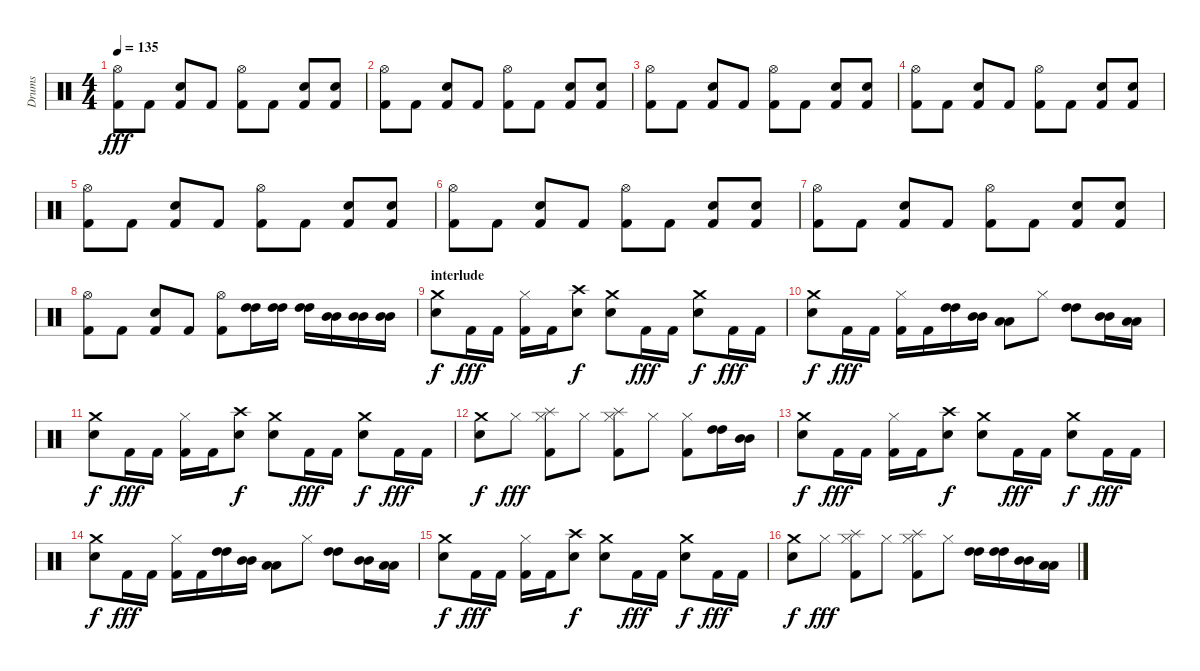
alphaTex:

\track ("Drums" "Drums") {instrument percussion}
\staff {score}
\articulation defaults
\ts (4 4)
\tempo 135
\clef neutral
\ks c
("Hi-Hat (open)" "Kick (hit) 2").8{dy fff} "Kick (hit) 2".8 ("Electric Snare (hit)" "Kick (hit) 2").8 "Kick (hit) 2".8 ("Hi-Hat (open)" "Kick (hit) 2").8 "Kick (hit) 2".8 ("Electric Snare (hit)" "Kick (hit) 2").8 ("Electric Snare (hit)" "Kick (hit) 2").8 |
("Hi-Hat (open)" "Kick (hit) 2").8 "Kick (hit) 2".8 ("Electric Snare (hit)" "Kick (hit) 2").8 "Kick (hit) 2".8 ("Hi-Hat (open)" "Kick (hit) 2").8 "Kick (hit) 2".8 ("Electric Snare (hit)" "Kick (hit) 2").8 ("Electric Snare (hit)" "Kick (hit) 2").8 |
("Hi-Hat (open)" "Kick (hit) 2").8 "Kick (hit) 2".8 ("Electric Snare (hit)" "Kick (hit) 2").8 "Kick (hit) 2".8 ("Hi-Hat (open)" "Kick (hit) 2").8 "Kick (hit) 2".8 ("Electric Snare (hit)" "Kick (hit) 2").8 ("Electric Snare (hit)" "Kick (hit) 2").8 |
("Hi-Hat (open)" "Kick (hit) 2").8 "Kick (hit) 2".8 ("Electric Snare (hit)" "Kick (hit) 2").8 "Kick (hit) 2".8 ("Hi-Hat (open)" "Kick (hit) 2").8 "Kick (hit) 2".8 ("Electric Snare (hit)" "Kick (hit) 2").8 ("Electric Snare (hit)" "Kick (hit) 2").8 |
("Hi-Hat (open)" "Kick (hit) 2").8 "Kick (hit) 2".8 ("Electric Snare (hit)" "Kick (hit) 2").8 "Kick (hit) 2".8 ("Hi-Hat (open)" "Kick (hit) 2").8 "Kick (hit) 2".8 ("Electric Snare (hit)" "Kick (hit) 2").8 ("Electric Snare (hit)" "Kick (hit) 2").8 |
("Hi-Hat (open)" "Kick (hit) 2").8 "Kick (hit) 2".8 ("Electric Snare (hit)" "Kick (hit) 2").8 "Kick (hit) 2".8 ("Hi-Hat (open)" "Kick (hit) 2").8 "Kick (hit) 2".8 ("Electric Snare (hit)" "Kick (hit) 2").8 ("Electric Snare (hit)" "Kick (hit) 2").8 |
("Hi-Hat (open)" "Kick (hit) 2").8 "Kick (hit) 2".8 ("Electric Snare (hit)" "Kick (hit) 2").8 "Kick (hit) 2".8 ("Hi-Hat (open)" "Kick (hit) 2").8 "Kick (hit) 2".8 ("Electric Snare (hit)" "Kick (hit) 2").8 ("Electric Snare (hit)" "Kick (hit) 2").8 |
("Hi-Hat (open)" "Kick (hit) 2").8 "Kick (hit) 2".8 ("Electric Snare (hit)" "Kick (hit) 2").8 "Kick (hit) 2".8 ("Hi-Hat (open)" "Kick (hit) 2").8 ("High Tom (hit)" "High Tom (hit)").16 ("High Tom (hit)" "High Tom (hit)").16 ("High Tom (hit)" "High Tom (hit)").16 ("Mid Tom (hit)" "Mid Tom (hit)").16 ("Mid Tom (hit)" "Mid Tom (hit)").16 ("Mid Tom (hit)" "Mid Tom (hit)").16 |
\section ("" "interlude")
("Crash medium (hit)" "Electric Snare (hit)").8{dy f} "Kick (hit) 2".16{dy fff} "Kick (hit) 2".16 ("Hi-Hat (closed)" "Kick (hit) 2").16 "Kick (hit) 2".16 ("Crash high (hit)" "Electric Snare (hit)").8{dy f} ("Crash medium (hit)" "Electric Snare (hit)").8 "Kick (hit) 2".16{dy fff} "Kick (hit) 2".16 ("Crash medium (hit)" "Electric Snare (hit)").8{dy f} "Kick (hit) 2".16{dy fff} "Kick (hit) 2".16 |
("Crash medium (hit)" "Electric Snare (hit)").8{dy f} "Kick (hit) 2".16{dy fff} "Kick (hit) 2".16 ("Hi-Hat (closed)" "Kick (hit) 2").16 "Kick (hit) 2".16 ("High Tom (hit)" "High Tom (hit)").16 ("Mid Tom (hit)" "Mid Tom (hit)").16 ("Low Tom (hit)" "Low Tom (hit)").8 "Hi-Hat (closed)".8 ("High Tom (hit)" "High Tom (hit)").8 ("Mid Tom (hit)" "Mid Tom (hit)").16 ("Low Tom (hit)" "Low Tom (hit)").16 |
("Crash medium (hit)" "Electric Snare (hit)").8{dy f} "Kick (hit) 2".16{dy fff} "Kick (hit) 2".16 ("Hi-Hat (closed)" "Kick (hit) 2").16 "Kick (hit) 2".16 ("Crash high (hit)" "Electric Snare (hit)").8{dy f} ("Crash medium (hit)" "Electric Snare (hit)").8 "Kick (hit) 2".16{dy fff} "Kick (hit) 2".16 ("Crash medium (hit)" "Electric Snare (hit)").8{dy f} "Kick (hit) 2".16{dy fff} "Kick (hit) 2".16 |
("Crash medium (hit)" "Electric Snare (hit)").8{dy f} "Hi-Hat (closed)".8{dy fff} ("Splash (hit)" "Kick (hit) 2" "Hi-Hat (closed)").8 "Hi-Hat (closed)".8 ("Splash (hit)" "Kick (hit) 2" "Hi-Hat (closed)").8 "Hi-Hat (closed)".8 ("Kick (hit) 2" "Hi-Hat (closed)").8 ("High Tom (hit)" "High Tom (hit)").16 ("Mid Tom (hit)" "Mid Tom (hit)").16 |
("Crash medium (hit)" "Electric Snare (hit)").8{dy f} "Kick (hit) 2".16{dy fff} "Kick (hit) 2".16 ("Hi-Hat (closed)" "Kick (hit) 2").16 "Kick (hit) 2".16 ("Crash high (hit)" "Electric Snare (hit)").8{dy f} ("Crash medium (hit)" "Electric Snare (hit)").8 "Kick (hit) 2".16{dy fff} "Kick (hit) 2".16 ("Crash medium (hit)" "Electric Snare (hit)").8{dy f} "Kick (hit) 2".16{dy fff} "Kick (hit) 2".16 |
("Crash medium (hit)" "Electric Snare (hit)").8{dy f} "Kick (hit) 2".16{dy fff} "Kick (hit) 2".16 ("Hi-Hat (closed)" "Kick (hit) 2").16 "Kick (hit) 2".16 ("High Tom (hit)" "High Tom (hit)").16 ("Mid Tom (hit)" "Mid Tom (hit)").16 ("Low Tom (hit)" "Low Tom (hit)").8 "Hi-Hat (closed)".8 ("High Tom (hit)" "High Tom (hit)").8 ("Mid Tom (hit)" "Mid Tom (hit)").16 ("Low Tom (hit)" "Low Tom (hit)").16 |
("Crash medium (hit)" "Electric Snare (hit)").8{dy f} "Kick (hit) 2".16{dy fff} "Kick (hit) 2".16 ("Hi-Hat (closed)" "Kick (hit) 2").16 "Kick (hit) 2".16 ("Crash high (hit)" "Electric Snare (hit)").8{dy f} ("Crash medium (hit)" "Electric Snare (hit)").8 "Kick (hit) 2".16{dy fff} "Kick (hit) 2".16 ("Crash medium (hit)" "Electric Snare (hit)").8{dy f} "Kick (hit) 2".16{dy fff} "Kick (hit) 2".16 |
("Crash medium (hit)" "Electric Snare (hit)").8{dy f} "Hi-Hat (closed)".8{dy fff} ("Splash (hit)" "Kick (hit) 2" "Hi-Hat (closed)").8 "Hi-Hat (closed)".8 ("Splash (hit)" "Kick (hit) 2" "Hi-Hat (closed)").8 "Hi-Hat (closed)".8 ("High Tom (hit)" "High Tom (hit)").16 ("High Tom (hit)" "High Tom (hit)").16 ("Mid Tom (hit)" "Mid Tom (hit)").16 ("Low Tom (hit)" "Low Tom (hit)").16
